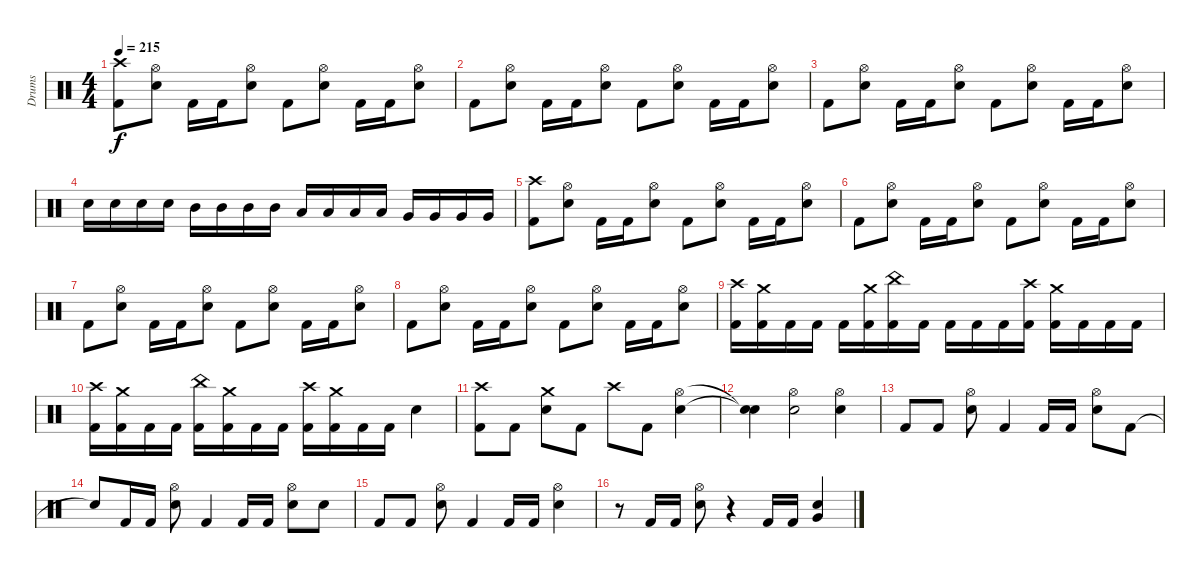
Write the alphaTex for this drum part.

\track ("Drums" "Drums") {instrument percussion}
\staff {score}
\articulation defaults
\ts (4 4)
\tempo 215
\clef neutral
\ks c
("Crash high (hit)" "Kick (hit) 2").8{dy f} ("Hi-Hat (open)" "Electric Snare (hit)").8 "Kick (hit) 2".16 "Kick (hit) 2".16 ("Hi-Hat (open)" "Electric Snare (hit)").8 "Kick (hit) 2".8 ("Hi-Hat (open)" "Electric Snare (hit)").8 "Kick (hit) 2".16 "Kick (hit) 2".16 ("Hi-Hat (open)" "Electric Snare (hit)").8 |
"Kick (hit) 2".8 ("Hi-Hat (open)" "Electric Snare (hit)").8 "Kick (hit) 2".16 "Kick (hit) 2".16 ("Hi-Hat (open)" "Electric Snare (hit)").8 "Kick (hit) 2".8 ("Hi-Hat (open)" "Electric Snare (hit)").8 "Kick (hit) 2".16 "Kick (hit) 2".16 ("Hi-Hat (open)" "Electric Snare (hit)").8 |
"Kick (hit) 2".8 ("Hi-Hat (open)" "Electric Snare (hit)").8 "Kick (hit) 2".16 "Kick (hit) 2".16 ("Hi-Hat (open)" "Electric Snare (hit)").8 "Kick (hit) 2".8 ("Hi-Hat (open)" "Electric Snare (hit)").8 "Kick (hit) 2".16 "Kick (hit) 2".16 ("Hi-Hat (open)" "Electric Snare (hit)").8 |
"Electric Snare (hit)".16 "Electric Snare (hit)".16 "Electric Snare (hit)".16 "Electric Snare (hit)".16 "Mid Tom (hit)".16 "Mid Tom (hit)".16 "Mid Tom (hit)".16 "Mid Tom (hit)".16 "Low Tom (hit)".16 "Low Tom (hit)".16 "Low Tom (hit)".16 "Low Tom (hit)".16 "Very Low Tom (hit)".16 "Very Low Tom (hit)".16 "Very Low Tom (hit)".16 "Very Low Tom (hit)".16 |
("Crash high (hit)" "Kick (hit) 2").8 ("Hi-Hat (open)" "Electric Snare (hit)").8 "Kick (hit) 2".16 "Kick (hit) 2".16 ("Hi-Hat (open)" "Electric Snare (hit)").8 "Kick (hit) 2".8 ("Hi-Hat (open)" "Electric Snare (hit)").8 "Kick (hit) 2".16 "Kick (hit) 2".16 ("Hi-Hat (open)" "Electric Snare (hit)").8 |
"Kick (hit) 2".8 ("Hi-Hat (open)" "Electric Snare (hit)").8 "Kick (hit) 2".16 "Kick (hit) 2".16 ("Hi-Hat (open)" "Electric Snare (hit)").8 "Kick (hit) 2".8 ("Hi-Hat (open)" "Electric Snare (hit)").8 "Kick (hit) 2".16 "Kick (hit) 2".16 ("Hi-Hat (open)" "Electric Snare (hit)").8 |
"Kick (hit) 2".8 ("Hi-Hat (open)" "Electric Snare (hit)").8 "Kick (hit) 2".16 "Kick (hit) 2".16 ("Hi-Hat (open)" "Electric Snare (hit)").8 "Kick (hit) 2".8 ("Hi-Hat (open)" "Electric Snare (hit)").8 "Kick (hit) 2".16 "Kick (hit) 2".16 ("Hi-Hat (open)" "Electric Snare (hit)").8 |
"Kick (hit) 2".8 ("Hi-Hat (open)" "Electric Snare (hit)").8 "Kick (hit) 2".16 "Kick (hit) 2".16 ("Hi-Hat (open)" "Electric Snare (hit)").8 "Kick (hit) 2".8 ("Hi-Hat (open)" "Electric Snare (hit)").8 "Kick (hit) 2".16 "Kick (hit) 2".16 ("Hi-Hat (open)" "Electric Snare (hit)").8 |
("Crash high (hit)" "Kick (hit) 2").16 ("Crash medium (hit)" "Kick (hit) 2").16 "Kick (hit) 2".16 "Kick (hit) 2".16 "Kick (hit) 2".16 ("Crash medium (hit)" "Kick (hit) 2").16 ("China (hit)" "Kick (hit) 2").16 "Kick (hit) 2".16 "Kick (hit) 2".16 "Kick (hit) 2".16 "Kick (hit) 2".16 ("Crash high (hit)" "Kick (hit) 2").16 ("Crash medium (hit)" "Kick (hit) 2").16 "Kick (hit) 2".16 "Kick (hit) 2".16 "Kick (hit) 2".16 |
("Crash high (hit)" "Kick (hit) 2").16 ("Crash medium (hit)" "Kick (hit) 2").16 "Kick (hit) 2".16 "Kick (hit) 2".16 ("China (hit)" "Kick (hit) 2").16 ("Crash medium (hit)" "Kick (hit) 2").16 "Kick (hit) 2".16 "Kick (hit) 2".16 ("Crash high (hit)" "Kick (hit) 2").16 ("Crash medium (hit)" "Kick (hit) 2").16 "Kick (hit) 2".16 "Kick (hit) 2".16 "Electric Snare (hit)".4 |
("Crash high (hit)" "Kick (hit) 2").8 "Kick (hit) 2".8 ("Crash medium (hit)" "Electric Snare (hit)").8 "Kick (hit) 2".8 "Crash high (hit)".8 "Kick (hit) 2".8 ("Hi-Hat (open)" "Electric Snare (hit)").4 |
("Snare (hit)"{t} "Snare (hit)"{t}).4 ("Hi-Hat (open)" "Electric Snare (hit)").2 ("Hi-Hat (open)" "Electric Snare (hit)").4 |
"Kick (hit) 2".8 "Kick (hit) 2".8 ("Hi-Hat (open)" "Electric Snare (hit)").8 "Kick (hit) 2".4 "Kick (hit) 2".16 "Kick (hit) 2".16 ("Hi-Hat (open)" "Electric Snare (hit)").8 "Kick (hit) 2".8 |
"Snare (hit)"{t}.8 "Kick (hit) 2".16 "Kick (hit) 2".16 ("Electric Snare (hit)" "Hi-Hat (open)").8 "Kick (hit) 2".4 "Kick (hit) 2".16 "Kick (hit) 2".16 ("Hi-Hat (open)" "Electric Snare (hit)").8 "Electric Snare (hit)".8 |
"Kick (hit) 2".8 "Kick (hit) 2".8 ("Hi-Hat (open)" "Electric Snare (hit)").8 "Kick (hit) 2".4 "Kick (hit) 2".16 "Kick (hit) 2".16 ("Hi-Hat (open)" "Electric Snare (hit)").4 |
r.8 "Kick (hit) 2".16 "Kick (hit) 2".16 ("Electric Snare (hit)" "Hi-Hat (open)").8 r.4 "Kick (hit) 2".16 "Kick (hit) 2".16 ("Very Low Tom (hit)" "Electric Snare (hit)").4
